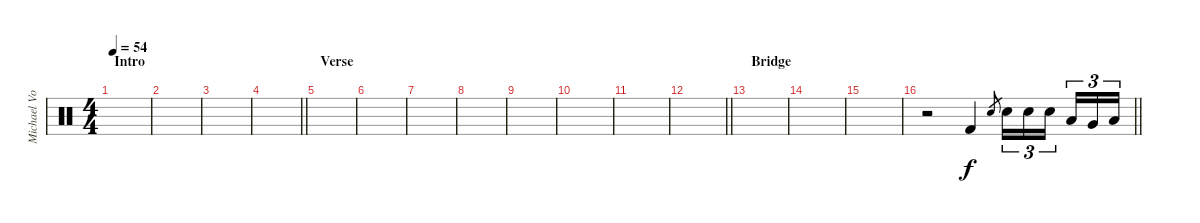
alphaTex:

\track ("Michael Von Knorring" "Michael Vo") {instrument percussion}
\staff {score}
\articulation defaults
\ts (4 4)
\section ("" "Intro")
\tempo 54
\clef neutral
\ks c
|
|
|
\barLineRight lightlight
|
\section ("" "Verse")
|
|
|
|
|
|
|
\barLineRight lightlight
|
\section ("" "Bridge")
|
|
|
\barLineRight lightlight
r.2 "Kick (hit) 2".4 "Electric Snare (hit)".8{gr} "Electric Snare (hit)".16{tu (3 2)} "Electric Snare (hit)".16{tu (3 2)} "Electric Snare (hit)".16{tu (3 2) beam splitsecondary} "Low Tom (hit)".16{tu (3 2)} "Very Low Tom (hit)".16{tu (3 2)} "Low Floor Tom (hit)".16{tu (3 2)}
